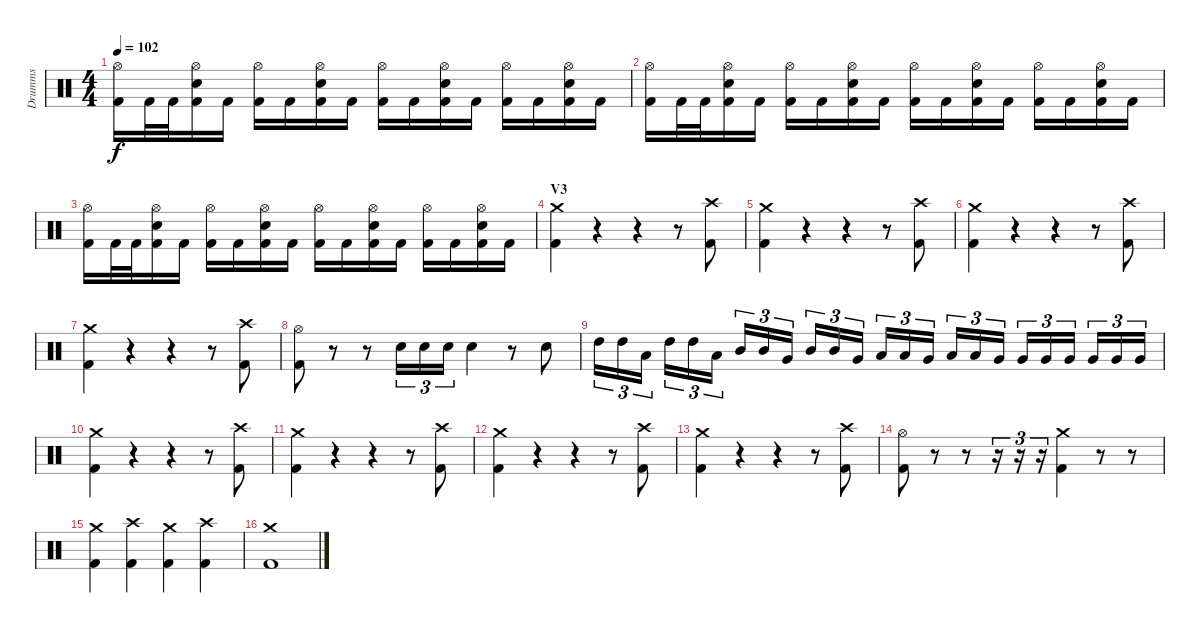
\track ("Drumms" "Drumms") {instrument percussion}
\staff {score}
\articulation defaults
\ts (4 4)
\tempo 102
\clef neutral
\ks c
("Hi-Hat (open)" "Kick (hit) 2").16{dy f} "Kick (hit) 2".32 "Kick (hit) 2".32 ("Hi-Hat (open)" "Snare (hit) 2" "Kick (hit) 2").16 "Kick (hit) 2".16 ("Hi-Hat (open)" "Kick (hit) 2").16 "Kick (hit) 2".16 ("Hi-Hat (open)" "Snare (hit) 2" "Kick (hit) 2").16 "Kick (hit) 2".16 ("Hi-Hat (open)" "Kick (hit) 2").16 "Kick (hit) 2".16 ("Hi-Hat (open)" "Snare (hit) 2" "Kick (hit) 2").16 "Kick (hit) 2".16 ("Hi-Hat (open)" "Kick (hit) 2").16 "Kick (hit) 2".16 ("Hi-Hat (open)" "Snare (hit) 2" "Kick (hit) 2").16 "Kick (hit) 2".16 |
("Hi-Hat (open)" "Kick (hit) 2").16 "Kick (hit) 2".32 "Kick (hit) 2".32 ("Hi-Hat (open)" "Snare (hit) 2" "Kick (hit) 2").16 "Kick (hit) 2".16 ("Hi-Hat (open)" "Kick (hit) 2").16 "Kick (hit) 2".16 ("Hi-Hat (open)" "Snare (hit) 2" "Kick (hit) 2").16 "Kick (hit) 2".16 ("Hi-Hat (open)" "Kick (hit) 2").16 "Kick (hit) 2".16 ("Hi-Hat (open)" "Snare (hit) 2" "Kick (hit) 2").16 "Kick (hit) 2".16 ("Hi-Hat (open)" "Kick (hit) 2").16 "Kick (hit) 2".16 ("Hi-Hat (open)" "Snare (hit) 2" "Kick (hit) 2").16 "Kick (hit) 2".16 |
("Hi-Hat (open)" "Kick (hit) 2").16 "Kick (hit) 2".32 "Kick (hit) 2".32 ("Hi-Hat (open)" "Snare (hit) 2" "Kick (hit) 2").16 "Kick (hit) 2".16 ("Hi-Hat (open)" "Kick (hit) 2").16 "Kick (hit) 2".16 ("Hi-Hat (open)" "Snare (hit) 2" "Kick (hit) 2").16 "Kick (hit) 2".16 ("Hi-Hat (open)" "Kick (hit) 2").16 "Kick (hit) 2".16 ("Hi-Hat (open)" "Snare (hit) 2" "Kick (hit) 2").16 "Kick (hit) 2".16 ("Hi-Hat (open)" "Kick (hit) 2").16 "Kick (hit) 2".16 ("Hi-Hat (open)" "Snare (hit) 2" "Kick (hit) 2").16 "Kick (hit) 2".16 |
\section ("" "V3")
("Crash medium (hit)" "Kick (hit) 2").4 r.4 r.4 r.8 ("Crash high (hit)" "Kick (hit) 2").8 |
("Crash medium (hit)" "Kick (hit) 2").4 r.4 r.4 r.8 ("Crash high (hit)" "Kick (hit) 2").8 |
("Crash medium (hit)" "Kick (hit) 2").4 r.4 r.4 r.8 ("Crash high (hit)" "Kick (hit) 2").8 |
("Crash medium (hit)" "Kick (hit) 2").4 r.4 r.4 r.8 ("Crash high (hit)" "Kick (hit) 2").8 |
("Hi-Hat (open)" "Kick (hit) 2").8 r.8 r.8 "Snare (hit) 2".16{tu (3 2)} "Snare (hit) 2".16{tu (3 2)} "Snare (hit) 2".16{tu (3 2)} "Snare (hit) 2".4 r.8 "Snare (hit) 2".8 |
"High Tom (hit)".16{tu (3 2)} "High Tom (hit)".16{tu (3 2)} "Low Tom (hit)".16{tu (3 2)} "High Tom (hit)".16{tu (3 2)} "High Tom (hit)".16{tu (3 2)} "Low Tom (hit)".16{tu (3 2)} "Mid Tom (hit)".16{tu (3 2)} "Mid Tom (hit)".16{tu (3 2)} "Very Low Tom (hit)".16{tu (3 2)} "Mid Tom (hit)".16{tu (3 2)} "Mid Tom (hit)".16{tu (3 2)} "Very Low Tom (hit)".16{tu (3 2)} "Low Tom (hit)".16{tu (3 2)} "Low Tom (hit)".16{tu (3 2)} "Very Low Tom (hit)".16{tu (3 2)} "Low Tom (hit)".16{tu (3 2)} "Low Tom (hit)".16{tu (3 2)} "Very Low Tom (hit)".16{tu (3 2)} "Very Low Tom (hit)".16{tu (3 2)} "Very Low Tom (hit)".16{tu (3 2)} "Very Low Tom (hit)".16{tu (3 2)} "Very Low Tom (hit)".16{tu (3 2)} "Very Low Tom (hit)".16{tu (3 2)} "Very Low Tom (hit)".16{tu (3 2)} |
("Crash medium (hit)" "Kick (hit) 2").4 r.4 r.4 r.8 ("Crash high (hit)" "Kick (hit) 2").8 |
("Crash medium (hit)" "Kick (hit) 2").4 r.4 r.4 r.8 ("Crash high (hit)" "Kick (hit) 2").8 |
("Crash medium (hit)" "Kick (hit) 2").4 r.4 r.4 r.8 ("Crash high (hit)" "Kick (hit) 2").8 |
("Crash medium (hit)" "Kick (hit) 2").4 r.4 r.4 r.8 ("Crash high (hit)" "Kick (hit) 2").8 |
("Hi-Hat (open)" "Kick (hit) 2").8 r.8 r.8 r.16{tu (3 2)} r.16{tu (3 2)} r.16{tu (3 2)} ("Crash medium (hit)" "Kick (hit) 2").4 r.8 r.8 |
("Crash medium (hit)" "Kick (hit) 2").4 ("Crash high (hit)" "Kick (hit) 2").4 ("Crash medium (hit)" "Kick (hit) 2").4 ("Crash high (hit)" "Kick (hit) 2").4 |
("Crash medium (hit)" "Kick (hit) 2").1
